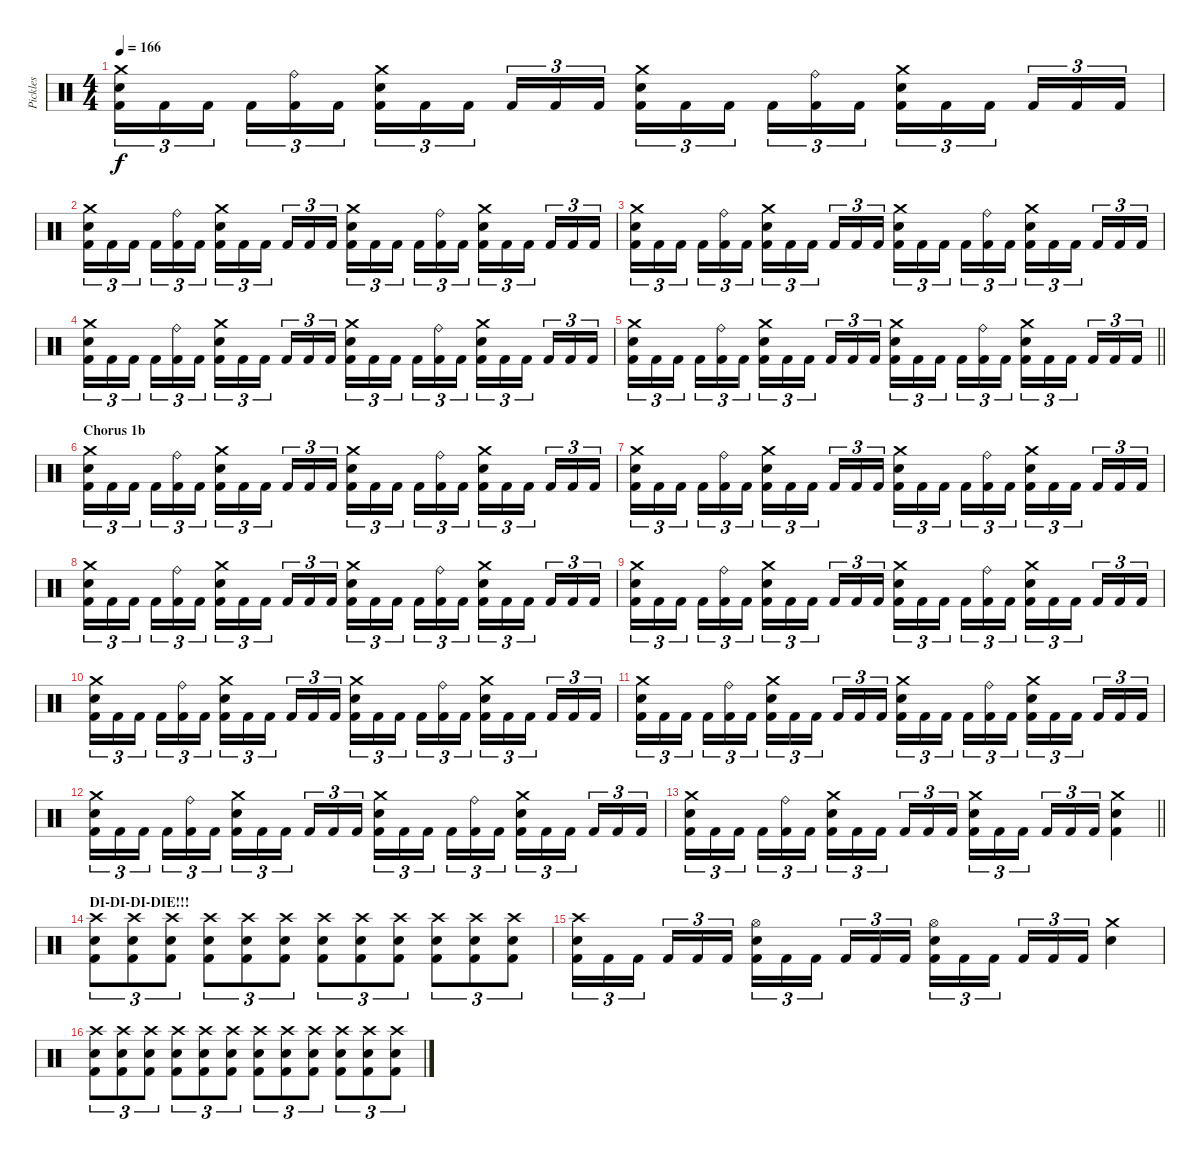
\track ("Pickles" "Pickles") {instrument percussion}
\staff {score}
\articulation defaults
\ts (4 4)
\tempo 166
\clef neutral
\ks c
("Crash medium (hit)" "Snare (hit) 2" "Kick (hit) 2").16{tu (3 2) dy f} "Kick (hit) 2".16{tu (3 2)} "Kick (hit) 2".16{tu (3 2) beam splitsecondary} "Kick (hit) 2".16{tu (3 2)} ("Ride (bell)" "Kick (hit) 2").16{tu (3 2)} "Kick (hit) 2".16{tu (3 2)} ("Crash medium (hit)" "Snare (hit) 2" "Kick (hit) 2").16{tu (3 2)} "Kick (hit) 2".16{tu (3 2)} "Kick (hit) 2".16{tu (3 2) beam splitsecondary} "Kick (hit) 2".16{tu (3 2)} "Kick (hit) 2".16{tu (3 2)} "Kick (hit) 2".16{tu (3 2)} ("Crash medium (hit)" "Snare (hit) 2" "Kick (hit) 2").16{tu (3 2)} "Kick (hit) 2".16{tu (3 2)} "Kick (hit) 2".16{tu (3 2) beam splitsecondary} "Kick (hit) 2".16{tu (3 2)} ("Ride (bell)" "Kick (hit) 2").16{tu (3 2)} "Kick (hit) 2".16{tu (3 2)} ("Crash medium (hit)" "Snare (hit) 2" "Kick (hit) 2").16{tu (3 2)} "Kick (hit) 2".16{tu (3 2)} "Kick (hit) 2".16{tu (3 2) beam splitsecondary} "Kick (hit) 2".16{tu (3 2)} "Kick (hit) 2".16{tu (3 2)} "Kick (hit) 2".16{tu (3 2)} |
("Crash medium (hit)" "Snare (hit) 2" "Kick (hit) 2").16{tu (3 2)} "Kick (hit) 2".16{tu (3 2)} "Kick (hit) 2".16{tu (3 2) beam splitsecondary} "Kick (hit) 2".16{tu (3 2)} ("Ride (bell)" "Kick (hit) 2").16{tu (3 2)} "Kick (hit) 2".16{tu (3 2)} ("Crash medium (hit)" "Snare (hit) 2" "Kick (hit) 2").16{tu (3 2)} "Kick (hit) 2".16{tu (3 2)} "Kick (hit) 2".16{tu (3 2) beam splitsecondary} "Kick (hit) 2".16{tu (3 2)} "Kick (hit) 2".16{tu (3 2)} "Kick (hit) 2".16{tu (3 2)} ("Crash medium (hit)" "Snare (hit) 2" "Kick (hit) 2").16{tu (3 2)} "Kick (hit) 2".16{tu (3 2)} "Kick (hit) 2".16{tu (3 2) beam splitsecondary} "Kick (hit) 2".16{tu (3 2)} ("Ride (bell)" "Kick (hit) 2").16{tu (3 2)} "Kick (hit) 2".16{tu (3 2)} ("Crash medium (hit)" "Snare (hit) 2" "Kick (hit) 2").16{tu (3 2)} "Kick (hit) 2".16{tu (3 2)} "Kick (hit) 2".16{tu (3 2) beam splitsecondary} "Kick (hit) 2".16{tu (3 2)} "Kick (hit) 2".16{tu (3 2)} "Kick (hit) 2".16{tu (3 2)} |
("Crash medium (hit)" "Snare (hit) 2" "Kick (hit) 2").16{tu (3 2)} "Kick (hit) 2".16{tu (3 2)} "Kick (hit) 2".16{tu (3 2) beam splitsecondary} "Kick (hit) 2".16{tu (3 2)} ("Ride (bell)" "Kick (hit) 2").16{tu (3 2)} "Kick (hit) 2".16{tu (3 2)} ("Crash medium (hit)" "Snare (hit) 2" "Kick (hit) 2").16{tu (3 2)} "Kick (hit) 2".16{tu (3 2)} "Kick (hit) 2".16{tu (3 2) beam splitsecondary} "Kick (hit) 2".16{tu (3 2)} "Kick (hit) 2".16{tu (3 2)} "Kick (hit) 2".16{tu (3 2)} ("Crash medium (hit)" "Snare (hit) 2" "Kick (hit) 2").16{tu (3 2)} "Kick (hit) 2".16{tu (3 2)} "Kick (hit) 2".16{tu (3 2) beam splitsecondary} "Kick (hit) 2".16{tu (3 2)} ("Ride (bell)" "Kick (hit) 2").16{tu (3 2)} "Kick (hit) 2".16{tu (3 2)} ("Crash medium (hit)" "Snare (hit) 2" "Kick (hit) 2").16{tu (3 2)} "Kick (hit) 2".16{tu (3 2)} "Kick (hit) 2".16{tu (3 2) beam splitsecondary} "Kick (hit) 2".16{tu (3 2)} "Kick (hit) 2".16{tu (3 2)} "Kick (hit) 2".16{tu (3 2)} |
("Crash medium (hit)" "Snare (hit) 2" "Kick (hit) 2").16{tu (3 2)} "Kick (hit) 2".16{tu (3 2)} "Kick (hit) 2".16{tu (3 2) beam splitsecondary} "Kick (hit) 2".16{tu (3 2)} ("Ride (bell)" "Kick (hit) 2").16{tu (3 2)} "Kick (hit) 2".16{tu (3 2)} ("Crash medium (hit)" "Snare (hit) 2" "Kick (hit) 2").16{tu (3 2)} "Kick (hit) 2".16{tu (3 2)} "Kick (hit) 2".16{tu (3 2) beam splitsecondary} "Kick (hit) 2".16{tu (3 2)} "Kick (hit) 2".16{tu (3 2)} "Kick (hit) 2".16{tu (3 2)} ("Crash medium (hit)" "Snare (hit) 2" "Kick (hit) 2").16{tu (3 2)} "Kick (hit) 2".16{tu (3 2)} "Kick (hit) 2".16{tu (3 2) beam splitsecondary} "Kick (hit) 2".16{tu (3 2)} ("Ride (bell)" "Kick (hit) 2").16{tu (3 2)} "Kick (hit) 2".16{tu (3 2)} ("Crash medium (hit)" "Snare (hit) 2" "Kick (hit) 2").16{tu (3 2)} "Kick (hit) 2".16{tu (3 2)} "Kick (hit) 2".16{tu (3 2) beam splitsecondary} "Kick (hit) 2".16{tu (3 2)} "Kick (hit) 2".16{tu (3 2)} "Kick (hit) 2".16{tu (3 2)} |
\barLineRight lightlight
("Crash medium (hit)" "Snare (hit) 2" "Kick (hit) 2").16{tu (3 2)} "Kick (hit) 2".16{tu (3 2)} "Kick (hit) 2".16{tu (3 2) beam splitsecondary} "Kick (hit) 2".16{tu (3 2)} ("Ride (bell)" "Kick (hit) 2").16{tu (3 2)} "Kick (hit) 2".16{tu (3 2)} ("Crash medium (hit)" "Snare (hit) 2" "Kick (hit) 2").16{tu (3 2)} "Kick (hit) 2".16{tu (3 2)} "Kick (hit) 2".16{tu (3 2) beam splitsecondary} "Kick (hit) 2".16{tu (3 2)} "Kick (hit) 2".16{tu (3 2)} "Kick (hit) 2".16{tu (3 2)} ("Crash medium (hit)" "Snare (hit) 2" "Kick (hit) 2").16{tu (3 2)} "Kick (hit) 2".16{tu (3 2)} "Kick (hit) 2".16{tu (3 2) beam splitsecondary} "Kick (hit) 2".16{tu (3 2)} ("Ride (bell)" "Kick (hit) 2").16{tu (3 2)} "Kick (hit) 2".16{tu (3 2)} ("Crash medium (hit)" "Snare (hit) 2" "Kick (hit) 2").16{tu (3 2)} "Kick (hit) 2".16{tu (3 2)} "Kick (hit) 2".16{tu (3 2) beam splitsecondary} "Kick (hit) 2".16{tu (3 2)} "Kick (hit) 2".16{tu (3 2)} "Kick (hit) 2".16{tu (3 2)} |
\section ("" "Chorus 1b")
("Crash medium (hit)" "Snare (hit) 2" "Kick (hit) 2").16{tu (3 2)} "Kick (hit) 2".16{tu (3 2)} "Kick (hit) 2".16{tu (3 2) beam splitsecondary} "Kick (hit) 2".16{tu (3 2)} ("Ride (bell)" "Kick (hit) 2").16{tu (3 2)} "Kick (hit) 2".16{tu (3 2)} ("Crash medium (hit)" "Snare (hit) 2" "Kick (hit) 2").16{tu (3 2)} "Kick (hit) 2".16{tu (3 2)} "Kick (hit) 2".16{tu (3 2) beam splitsecondary} "Kick (hit) 2".16{tu (3 2)} "Kick (hit) 2".16{tu (3 2)} "Kick (hit) 2".16{tu (3 2)} ("Crash medium (hit)" "Snare (hit) 2" "Kick (hit) 2").16{tu (3 2)} "Kick (hit) 2".16{tu (3 2)} "Kick (hit) 2".16{tu (3 2) beam splitsecondary} "Kick (hit) 2".16{tu (3 2)} ("Ride (bell)" "Kick (hit) 2").16{tu (3 2)} "Kick (hit) 2".16{tu (3 2)} ("Crash medium (hit)" "Snare (hit) 2" "Kick (hit) 2").16{tu (3 2)} "Kick (hit) 2".16{tu (3 2)} "Kick (hit) 2".16{tu (3 2) beam splitsecondary} "Kick (hit) 2".16{tu (3 2)} "Kick (hit) 2".16{tu (3 2)} "Kick (hit) 2".16{tu (3 2)} |
("Crash medium (hit)" "Snare (hit) 2" "Kick (hit) 2").16{tu (3 2)} "Kick (hit) 2".16{tu (3 2)} "Kick (hit) 2".16{tu (3 2) beam splitsecondary} "Kick (hit) 2".16{tu (3 2)} ("Ride (bell)" "Kick (hit) 2").16{tu (3 2)} "Kick (hit) 2".16{tu (3 2)} ("Crash medium (hit)" "Snare (hit) 2" "Kick (hit) 2").16{tu (3 2)} "Kick (hit) 2".16{tu (3 2)} "Kick (hit) 2".16{tu (3 2) beam splitsecondary} "Kick (hit) 2".16{tu (3 2)} "Kick (hit) 2".16{tu (3 2)} "Kick (hit) 2".16{tu (3 2)} ("Crash medium (hit)" "Snare (hit) 2" "Kick (hit) 2").16{tu (3 2)} "Kick (hit) 2".16{tu (3 2)} "Kick (hit) 2".16{tu (3 2) beam splitsecondary} "Kick (hit) 2".16{tu (3 2)} ("Ride (bell)" "Kick (hit) 2").16{tu (3 2)} "Kick (hit) 2".16{tu (3 2)} ("Crash medium (hit)" "Snare (hit) 2" "Kick (hit) 2").16{tu (3 2)} "Kick (hit) 2".16{tu (3 2)} "Kick (hit) 2".16{tu (3 2) beam splitsecondary} "Kick (hit) 2".16{tu (3 2)} "Kick (hit) 2".16{tu (3 2)} "Kick (hit) 2".16{tu (3 2)} |
("Crash medium (hit)" "Snare (hit) 2" "Kick (hit) 2").16{tu (3 2)} "Kick (hit) 2".16{tu (3 2)} "Kick (hit) 2".16{tu (3 2) beam splitsecondary} "Kick (hit) 2".16{tu (3 2)} ("Ride (bell)" "Kick (hit) 2").16{tu (3 2)} "Kick (hit) 2".16{tu (3 2)} ("Crash medium (hit)" "Snare (hit) 2" "Kick (hit) 2").16{tu (3 2)} "Kick (hit) 2".16{tu (3 2)} "Kick (hit) 2".16{tu (3 2) beam splitsecondary} "Kick (hit) 2".16{tu (3 2)} "Kick (hit) 2".16{tu (3 2)} "Kick (hit) 2".16{tu (3 2)} ("Crash medium (hit)" "Snare (hit) 2" "Kick (hit) 2").16{tu (3 2)} "Kick (hit) 2".16{tu (3 2)} "Kick (hit) 2".16{tu (3 2) beam splitsecondary} "Kick (hit) 2".16{tu (3 2)} ("Ride (bell)" "Kick (hit) 2").16{tu (3 2)} "Kick (hit) 2".16{tu (3 2)} ("Crash medium (hit)" "Snare (hit) 2" "Kick (hit) 2").16{tu (3 2)} "Kick (hit) 2".16{tu (3 2)} "Kick (hit) 2".16{tu (3 2) beam splitsecondary} "Kick (hit) 2".16{tu (3 2)} "Kick (hit) 2".16{tu (3 2)} "Kick (hit) 2".16{tu (3 2)} |
("Crash medium (hit)" "Snare (hit) 2" "Kick (hit) 2").16{tu (3 2)} "Kick (hit) 2".16{tu (3 2)} "Kick (hit) 2".16{tu (3 2) beam splitsecondary} "Kick (hit) 2".16{tu (3 2)} ("Ride (bell)" "Kick (hit) 2").16{tu (3 2)} "Kick (hit) 2".16{tu (3 2)} ("Crash medium (hit)" "Snare (hit) 2" "Kick (hit) 2").16{tu (3 2)} "Kick (hit) 2".16{tu (3 2)} "Kick (hit) 2".16{tu (3 2) beam splitsecondary} "Kick (hit) 2".16{tu (3 2)} "Kick (hit) 2".16{tu (3 2)} "Kick (hit) 2".16{tu (3 2)} ("Crash medium (hit)" "Snare (hit) 2" "Kick (hit) 2").16{tu (3 2)} "Kick (hit) 2".16{tu (3 2)} "Kick (hit) 2".16{tu (3 2) beam splitsecondary} "Kick (hit) 2".16{tu (3 2)} ("Ride (bell)" "Kick (hit) 2").16{tu (3 2)} "Kick (hit) 2".16{tu (3 2)} ("Crash medium (hit)" "Snare (hit) 2" "Kick (hit) 2").16{tu (3 2)} "Kick (hit) 2".16{tu (3 2)} "Kick (hit) 2".16{tu (3 2) beam splitsecondary} "Kick (hit) 2".16{tu (3 2)} "Kick (hit) 2".16{tu (3 2)} "Kick (hit) 2".16{tu (3 2)} |
("Crash medium (hit)" "Snare (hit) 2" "Kick (hit) 2").16{tu (3 2)} "Kick (hit) 2".16{tu (3 2)} "Kick (hit) 2".16{tu (3 2) beam splitsecondary} "Kick (hit) 2".16{tu (3 2)} ("Ride (bell)" "Kick (hit) 2").16{tu (3 2)} "Kick (hit) 2".16{tu (3 2)} ("Crash medium (hit)" "Snare (hit) 2" "Kick (hit) 2").16{tu (3 2)} "Kick (hit) 2".16{tu (3 2)} "Kick (hit) 2".16{tu (3 2) beam splitsecondary} "Kick (hit) 2".16{tu (3 2)} "Kick (hit) 2".16{tu (3 2)} "Kick (hit) 2".16{tu (3 2)} ("Crash medium (hit)" "Snare (hit) 2" "Kick (hit) 2").16{tu (3 2)} "Kick (hit) 2".16{tu (3 2)} "Kick (hit) 2".16{tu (3 2) beam splitsecondary} "Kick (hit) 2".16{tu (3 2)} ("Ride (bell)" "Kick (hit) 2").16{tu (3 2)} "Kick (hit) 2".16{tu (3 2)} ("Crash medium (hit)" "Snare (hit) 2" "Kick (hit) 2").16{tu (3 2)} "Kick (hit) 2".16{tu (3 2)} "Kick (hit) 2".16{tu (3 2) beam splitsecondary} "Kick (hit) 2".16{tu (3 2)} "Kick (hit) 2".16{tu (3 2)} "Kick (hit) 2".16{tu (3 2)} |
("Crash medium (hit)" "Snare (hit) 2" "Kick (hit) 2").16{tu (3 2)} "Kick (hit) 2".16{tu (3 2)} "Kick (hit) 2".16{tu (3 2) beam splitsecondary} "Kick (hit) 2".16{tu (3 2)} ("Ride (bell)" "Kick (hit) 2").16{tu (3 2)} "Kick (hit) 2".16{tu (3 2)} ("Crash medium (hit)" "Snare (hit) 2" "Kick (hit) 2").16{tu (3 2)} "Kick (hit) 2".16{tu (3 2)} "Kick (hit) 2".16{tu (3 2) beam splitsecondary} "Kick (hit) 2".16{tu (3 2)} "Kick (hit) 2".16{tu (3 2)} "Kick (hit) 2".16{tu (3 2)} ("Crash medium (hit)" "Snare (hit) 2" "Kick (hit) 2").16{tu (3 2)} "Kick (hit) 2".16{tu (3 2)} "Kick (hit) 2".16{tu (3 2) beam splitsecondary} "Kick (hit) 2".16{tu (3 2)} ("Ride (bell)" "Kick (hit) 2").16{tu (3 2)} "Kick (hit) 2".16{tu (3 2)} ("Crash medium (hit)" "Snare (hit) 2" "Kick (hit) 2").16{tu (3 2)} "Kick (hit) 2".16{tu (3 2)} "Kick (hit) 2".16{tu (3 2) beam splitsecondary} "Kick (hit) 2".16{tu (3 2)} "Kick (hit) 2".16{tu (3 2)} "Kick (hit) 2".16{tu (3 2)} |
("Crash medium (hit)" "Snare (hit) 2" "Kick (hit) 2").16{tu (3 2)} "Kick (hit) 2".16{tu (3 2)} "Kick (hit) 2".16{tu (3 2) beam splitsecondary} "Kick (hit) 2".16{tu (3 2)} ("Ride (bell)" "Kick (hit) 2").16{tu (3 2)} "Kick (hit) 2".16{tu (3 2)} ("Crash medium (hit)" "Snare (hit) 2" "Kick (hit) 2").16{tu (3 2)} "Kick (hit) 2".16{tu (3 2)} "Kick (hit) 2".16{tu (3 2) beam splitsecondary} "Kick (hit) 2".16{tu (3 2)} "Kick (hit) 2".16{tu (3 2)} "Kick (hit) 2".16{tu (3 2)} ("Crash medium (hit)" "Snare (hit) 2" "Kick (hit) 2").16{tu (3 2)} "Kick (hit) 2".16{tu (3 2)} "Kick (hit) 2".16{tu (3 2) beam splitsecondary} "Kick (hit) 2".16{tu (3 2)} ("Ride (bell)" "Kick (hit) 2").16{tu (3 2)} "Kick (hit) 2".16{tu (3 2)} ("Crash medium (hit)" "Snare (hit) 2" "Kick (hit) 2").16{tu (3 2)} "Kick (hit) 2".16{tu (3 2)} "Kick (hit) 2".16{tu (3 2) beam splitsecondary} "Kick (hit) 2".16{tu (3 2)} "Kick (hit) 2".16{tu (3 2)} "Kick (hit) 2".16{tu (3 2)} |
\barLineRight lightlight
("Crash medium (hit)" "Snare (hit) 2" "Kick (hit) 2").16{tu (3 2)} "Kick (hit) 2".16{tu (3 2)} "Kick (hit) 2".16{tu (3 2) beam splitsecondary} "Kick (hit) 2".16{tu (3 2)} ("Ride (bell)" "Kick (hit) 2").16{tu (3 2)} "Kick (hit) 2".16{tu (3 2)} ("Crash medium (hit)" "Snare (hit) 2" "Kick (hit) 2").16{tu (3 2)} "Kick (hit) 2".16{tu (3 2)} "Kick (hit) 2".16{tu (3 2) beam splitsecondary} "Kick (hit) 2".16{tu (3 2)} "Kick (hit) 2".16{tu (3 2)} "Kick (hit) 2".16{tu (3 2)} ("Crash medium (hit)" "Snare (hit) 2" "Kick (hit) 2").16{tu (3 2)} "Kick (hit) 2".16{tu (3 2)} "Kick (hit) 2".16{tu (3 2) beam splitsecondary} "Kick (hit) 2".16{tu (3 2)} "Kick (hit) 2".16{tu (3 2)} "Kick (hit) 2".16{tu (3 2)} ("Crash medium (hit)" "Snare (hit) 2" "Kick (hit) 2").4 |
\section ("" "DI-DI-DI-DIE!!!")
("Crash high (hit)" "Snare (hit) 2" "Kick (hit) 2").8{tu (3 2)} ("Crash high (hit)" "Snare (hit) 2" "Kick (hit) 2").8{tu (3 2)} ("Crash high (hit)" "Snare (hit) 2" "Kick (hit) 2").8{tu (3 2)} ("Crash high (hit)" "Snare (hit) 2" "Kick (hit) 2").8{tu (3 2)} ("Crash high (hit)" "Snare (hit) 2" "Kick (hit) 2").8{tu (3 2)} ("Crash high (hit)" "Snare (hit) 2" "Kick (hit) 2").8{tu (3 2)} ("Crash high (hit)" "Snare (hit) 2" "Kick (hit) 2").8{tu (3 2)} ("Crash high (hit)" "Snare (hit) 2" "Kick (hit) 2").8{tu (3 2)} ("Crash high (hit)" "Snare (hit) 2" "Kick (hit) 2").8{tu (3 2)} ("Crash high (hit)" "Snare (hit) 2" "Kick (hit) 2").8{tu (3 2)} ("Crash high (hit)" "Snare (hit) 2" "Kick (hit) 2").8{tu (3 2)} ("Crash high (hit)" "Snare (hit) 2" "Kick (hit) 2").8{tu (3 2)} |
("Crash high (hit)" "Snare (hit) 2" "Kick (hit) 2").16{tu (3 2)} "Kick (hit) 2".16{tu (3 2)} "Kick (hit) 2".16{tu (3 2) beam splitsecondary} "Kick (hit) 2".16{tu (3 2)} "Kick (hit) 2".16{tu (3 2)} "Kick (hit) 2".16{tu (3 2)} ("Hi-Hat (open)" "Snare (hit) 2" "Kick (hit) 2").16{tu (3 2)} "Kick (hit) 2".16{tu (3 2)} "Kick (hit) 2".16{tu (3 2) beam splitsecondary} "Kick (hit) 2".16{tu (3 2)} "Kick (hit) 2".16{tu (3 2)} "Kick (hit) 2".16{tu (3 2)} ("Hi-Hat (open)" "Snare (hit) 2" "Kick (hit) 2").16{tu (3 2)} "Kick (hit) 2".16{tu (3 2)} "Kick (hit) 2".16{tu (3 2) beam splitsecondary} "Kick (hit) 2".16{tu (3 2)} "Kick (hit) 2".16{tu (3 2)} "Kick (hit) 2".16{tu (3 2)} ("Crash medium (hit)" "Snare (hit) 2").4 |
("Crash high (hit)" "Snare (hit) 2" "Kick (hit) 2").8{tu (3 2)} ("Crash high (hit)" "Snare (hit) 2" "Kick (hit) 2").8{tu (3 2)} ("Crash high (hit)" "Snare (hit) 2" "Kick (hit) 2").8{tu (3 2)} ("Crash high (hit)" "Snare (hit) 2" "Kick (hit) 2").8{tu (3 2)} ("Crash high (hit)" "Snare (hit) 2" "Kick (hit) 2").8{tu (3 2)} ("Crash high (hit)" "Snare (hit) 2" "Kick (hit) 2").8{tu (3 2)} ("Crash high (hit)" "Snare (hit) 2" "Kick (hit) 2").8{tu (3 2)} ("Crash high (hit)" "Snare (hit) 2" "Kick (hit) 2").8{tu (3 2)} ("Crash high (hit)" "Snare (hit) 2" "Kick (hit) 2").8{tu (3 2)} ("Crash high (hit)" "Snare (hit) 2" "Kick (hit) 2").8{tu (3 2)} ("Crash high (hit)" "Snare (hit) 2" "Kick (hit) 2").8{tu (3 2)} ("Crash high (hit)" "Snare (hit) 2" "Kick (hit) 2").8{tu (3 2)}
